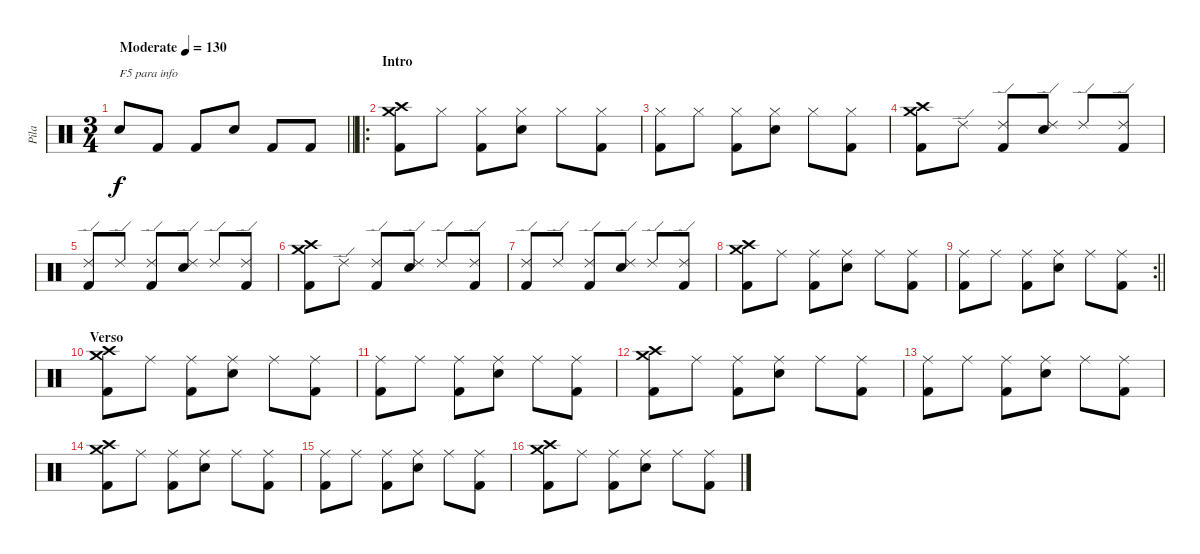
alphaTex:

\track ("Pila" "Pila") {instrument percussion}
\staff {score}
\articulation defaults
\ts (3 4)
\section ("" "")
\tempo (130 "Moderate")
\clef neutral
\barLineRight lightlight
\ks c "Electric Snare (hit)".8{txt "F5 para info" dy f} "Kick (hit) 2".8 "Kick (hit) 2".8 "Electric Snare (hit)".8 "Kick (hit) 2".8 "Kick (hit) 2".8
|
\ro
\section ("" "Intro")
("Crash high (hit)" "Crash medium (hit)" "Kick (hit) 2").8 "Hi-Hat (closed)".8 ("Hi-Hat (closed)" "Kick (hit) 2").8 ("Hi-Hat (closed)" "Electric Snare (hit)").8 "Hi-Hat (closed)".8 ("Hi-Hat (closed)" "Kick (hit) 2").8 |
("Hi-Hat (closed)" "Kick (hit) 2").8 "Hi-Hat (closed)".8 ("Hi-Hat (closed)" "Kick (hit) 2").8 ("Hi-Hat (closed)" "Electric Snare (hit)").8 "Hi-Hat (closed)".8 ("Hi-Hat (closed)" "Kick (hit) 2").8 |
("Crash high (hit)" "Crash medium (hit)" "Kick (hit) 2").8 "Ride (edge) 2".8 ("Ride (edge) 2" "Kick (hit) 2").8 ("Ride (edge) 2" "Electric Snare (hit)").8 "Ride (edge) 2".8 ("Ride (edge) 2" "Kick (hit) 2").8 |
("Ride (edge) 2" "Kick (hit) 2").8 "Ride (edge) 2".8 ("Ride (edge) 2" "Kick (hit) 2").8 ("Ride (edge) 2" "Electric Snare (hit)").8 "Ride (edge) 2".8 ("Ride (edge) 2" "Kick (hit) 2").8 |
("Crash high (hit)" "Crash medium (hit)" "Kick (hit) 2").8 "Ride (edge) 2".8 ("Ride (edge) 2" "Kick (hit) 2").8 ("Ride (edge) 2" "Electric Snare (hit)").8 "Ride (edge) 2".8 ("Ride (edge) 2" "Kick (hit) 2").8 |
("Ride (edge) 2" "Kick (hit) 2").8 "Ride (edge) 2".8 ("Ride (edge) 2" "Kick (hit) 2").8 ("Ride (edge) 2" "Electric Snare (hit)").8 "Ride (edge) 2".8 ("Ride (edge) 2" "Kick (hit) 2").8 |
("Crash high (hit)" "Crash medium (hit)" "Kick (hit) 2").8 "Ride (middle)".8 ("Ride (middle)" "Kick (hit) 2").8 ("Ride (middle)" "Electric Snare (hit)").8 "Ride (middle)".8 ("Ride (middle)" "Kick (hit) 2").8 |
\rc 2
\barLineRight lightlight
("Ride (middle)" "Kick (hit) 2").8 "Ride (middle)".8 ("Ride (middle)" "Kick (hit) 2").8 ("Ride (middle)" "Electric Snare (hit)").8 "Ride (middle)".8 ("Ride (middle)" "Kick (hit) 2").8 |
\section ("" "Verso ")
("Crash high (hit)" "Crash medium (hit)" "Kick (hit) 2").8 "Ride (middle)".8 ("Ride (middle)" "Kick (hit) 2").8 ("Ride (middle)" "Electric Snare (hit)").8 "Ride (middle)".8 ("Ride (middle)" "Kick (hit) 2").8 |
("Ride (middle)" "Kick (hit) 2").8 "Ride (middle)".8 ("Ride (middle)" "Kick (hit) 2").8 ("Ride (middle)" "Electric Snare (hit)").8 "Ride (middle)".8 ("Ride (middle)" "Kick (hit) 2").8 |
("Crash high (hit)" "Crash medium (hit)" "Kick (hit) 2").8 "Ride (middle)".8 ("Ride (middle)" "Kick (hit) 2").8 ("Ride (middle)" "Electric Snare (hit)").8 "Ride (middle)".8 ("Ride (middle)" "Kick (hit) 2").8 |
("Ride (middle)" "Kick (hit) 2").8 "Ride (middle)".8 ("Ride (middle)" "Kick (hit) 2").8 ("Ride (middle)" "Electric Snare (hit)").8 "Ride (middle)".8 ("Ride (middle)" "Kick (hit) 2").8 |
("Crash high (hit)" "Crash medium (hit)" "Kick (hit) 2").8 "Ride (middle)".8 ("Ride (middle)" "Kick (hit) 2").8 ("Ride (middle)" "Electric Snare (hit)").8 "Ride (middle)".8 ("Ride (middle)" "Kick (hit) 2").8 |
("Ride (middle)" "Kick (hit) 2").8 "Ride (middle)".8 ("Ride (middle)" "Kick (hit) 2").8 ("Ride (middle)" "Electric Snare (hit)").8 "Ride (middle)".8 ("Ride (middle)" "Kick (hit) 2").8 |
("Crash high (hit)" "Crash medium (hit)" "Kick (hit) 2").8 "Ride (middle)".8 ("Ride (middle)" "Kick (hit) 2").8 ("Ride (middle)" "Electric Snare (hit)").8 "Ride (middle)".8 ("Ride (middle)" "Kick (hit) 2").8
